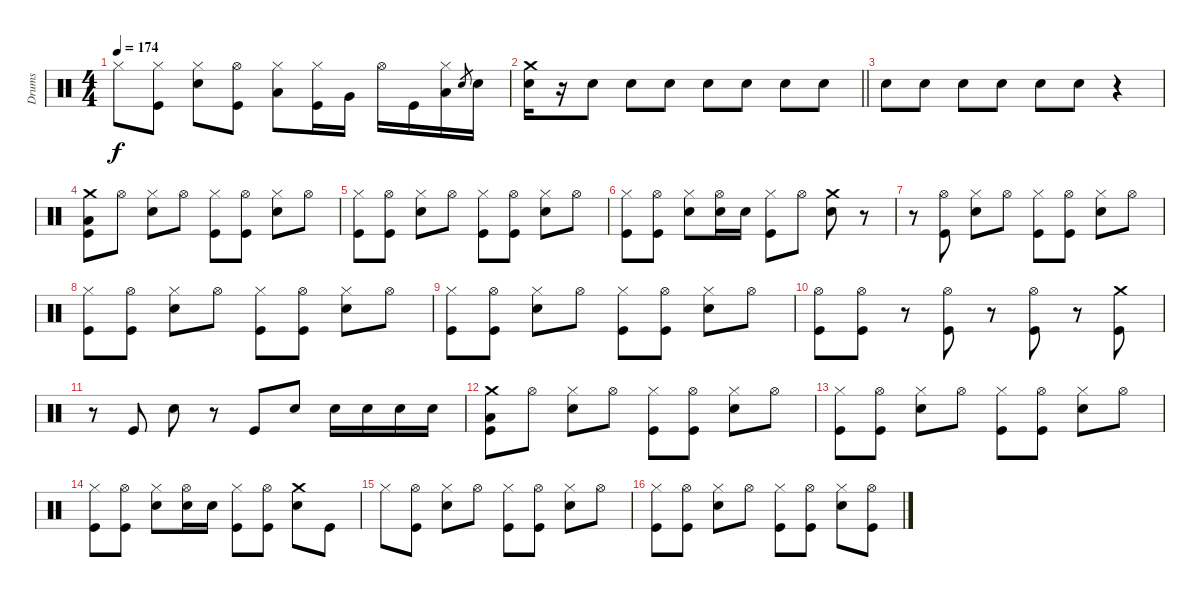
\track ("Drums" "Drums") {instrument percussion}
\staff {score}
\articulation defaults
\ts (4 4)
\tempo 174
\clef neutral
\ks c "Hi-Hat (closed)".8{dy f}
("Hi-Hat (closed)" "Kick (hit)").8 ("Hi-Hat (closed)" "Electric Snare (hit)").8 ("Hi-Hat (open)" "Kick (hit)").8 ("Hi-Hat (closed)" "Low Tom (hit)").8 ("Hi-Hat (closed)" "Kick (hit)").16 "Very Low Tom (hit)".16 "Hi-Hat (open)".16 "Kick (hit)".16 ("Hi-Hat (closed)" "Low Floor Tom (hit)").16 "Electric Snare (hit)".8{gr} "Electric Snare (hit)".16 |
\barLineRight lightlight
("Crash medium (hit)" "Electric Snare (hit)").16 r.16 "Electric Snare (hit)".8 "Electric Snare (hit)".8 "Electric Snare (hit)".8 "Electric Snare (hit)".8 "Electric Snare (hit)".8 "Electric Snare (hit)".8 "Electric Snare (hit)".8 |
"Electric Snare (hit)".8 "Electric Snare (hit)".8 "Electric Snare (hit)".8 "Electric Snare (hit)".8 "Electric Snare (hit)".8 "Electric Snare (hit)".8 r.4 |
("Crash medium (hit)" "Low Floor Tom (hit)" "Kick (hit)").8 "Hi-Hat (open)".8 ("Hi-Hat (closed)" "Electric Snare (hit)").8 "Hi-Hat (open)".8 ("Hi-Hat (closed)" "Kick (hit)").8 ("Hi-Hat (open)" "Kick (hit)").8 ("Hi-Hat (closed)" "Electric Snare (hit)").8 "Hi-Hat (open)".8 |
("Hi-Hat (closed)" "Kick (hit)").8 ("Hi-Hat (open)" "Kick (hit)").8 ("Hi-Hat (closed)" "Electric Snare (hit)").8 "Hi-Hat (open)".8 ("Hi-Hat (closed)" "Kick (hit)").8 ("Hi-Hat (open)" "Kick (hit)").8 ("Hi-Hat (closed)" "Electric Snare (hit)").8 "Hi-Hat (open)".8 |
("Hi-Hat (closed)" "Kick (hit)").8 ("Hi-Hat (open)" "Kick (hit)").8 ("Hi-Hat (closed)" "Electric Snare (hit)").8 ("Hi-Hat (open)" "Electric Snare (hit)").16 "Electric Snare (hit)".16 ("Hi-Hat (closed)" "Kick (hit)").8 "Hi-Hat (open)".8 ("Crash medium (hit)" "Electric Snare (hit)").8 r.8 |
r.8 ("Hi-Hat (open)" "Kick (hit)").8 ("Hi-Hat (closed)" "Electric Snare (hit)").8 "Hi-Hat (open)".8 ("Hi-Hat (closed)" "Kick (hit)").8 ("Hi-Hat (open)" "Kick (hit)").8 ("Hi-Hat (closed)" "Electric Snare (hit)").8 "Hi-Hat (open)".8 |
("Hi-Hat (closed)" "Kick (hit)").8 ("Hi-Hat (open)" "Kick (hit)").8 ("Hi-Hat (closed)" "Electric Snare (hit)").8 "Hi-Hat (open)".8 ("Hi-Hat (closed)" "Kick (hit)").8 ("Hi-Hat (open)" "Kick (hit)").8 ("Hi-Hat (closed)" "Electric Snare (hit)").8 "Hi-Hat (open)".8 |
("Hi-Hat (closed)" "Kick (hit)").8 ("Hi-Hat (open)" "Kick (hit)").8 ("Hi-Hat (closed)" "Electric Snare (hit)").8 "Hi-Hat (open)".8 ("Hi-Hat (closed)" "Kick (hit)").8 ("Hi-Hat (open)" "Kick (hit)").8 ("Hi-Hat (closed)" "Electric Snare (hit)").8 "Hi-Hat (open)".8 |
("Hi-Hat (open)" "Kick (hit)").8 ("Hi-Hat (open)" "Kick (hit)").8 r.8 ("Hi-Hat (open)" "Kick (hit)").8 r.8 ("Hi-Hat (open)" "Kick (hit)").8 r.8 ("Crash medium (hit)" "Kick (hit)").8 |
r.8 "Kick (hit)".8 "Electric Snare (hit)".8 r.8 "Kick (hit)".8 "Electric Snare (hit)".8 "Electric Snare (hit)".16 "Electric Snare (hit)".16 "Electric Snare (hit)".16 "Electric Snare (hit)".16 |
("Crash medium (hit)" "Low Floor Tom (hit)" "Kick (hit)").8 "Hi-Hat (open)".8 ("Hi-Hat (closed)" "Electric Snare (hit)").8 "Hi-Hat (open)".8 ("Hi-Hat (closed)" "Kick (hit)").8 ("Hi-Hat (open)" "Kick (hit)").8 ("Hi-Hat (closed)" "Electric Snare (hit)").8 "Hi-Hat (open)".8 |
("Hi-Hat (closed)" "Kick (hit)").8 ("Hi-Hat (open)" "Kick (hit)").8 ("Hi-Hat (closed)" "Electric Snare (hit)").8 "Hi-Hat (open)".8 ("Hi-Hat (closed)" "Kick (hit)").8 ("Hi-Hat (open)" "Kick (hit)").8 ("Hi-Hat (closed)" "Electric Snare (hit)").8 "Hi-Hat (open)".8 |
("Hi-Hat (closed)" "Kick (hit)").8 ("Hi-Hat (open)" "Kick (hit)").8 ("Hi-Hat (closed)" "Electric Snare (hit)").8 ("Hi-Hat (open)" "Electric Snare (hit)").16 "Electric Snare (hit)".16 ("Hi-Hat (closed)" "Kick (hit)").8 ("Hi-Hat (open)" "Kick (hit)").8 ("Crash medium (hit)" "Electric Snare (hit)").8 "Kick (hit)".8 |
"Hi-Hat (closed)".8 ("Hi-Hat (open)" "Kick (hit)").8 ("Hi-Hat (closed)" "Electric Snare (hit)").8 "Hi-Hat (open)".8 ("Hi-Hat (closed)" "Kick (hit)").8 ("Hi-Hat (open)" "Kick (hit)").8 ("Hi-Hat (closed)" "Electric Snare (hit)").8 "Hi-Hat (open)".8 |
("Hi-Hat (closed)" "Kick (hit)").8 ("Hi-Hat (open)" "Kick (hit)").8 ("Hi-Hat (closed)" "Electric Snare (hit)").8 "Hi-Hat (open)".8 ("Hi-Hat (closed)" "Kick (hit)").8 ("Hi-Hat (open)" "Kick (hit)").8 ("Hi-Hat (closed)" "Electric Snare (hit)").8 ("Hi-Hat (open)" "Kick (hit)").8
